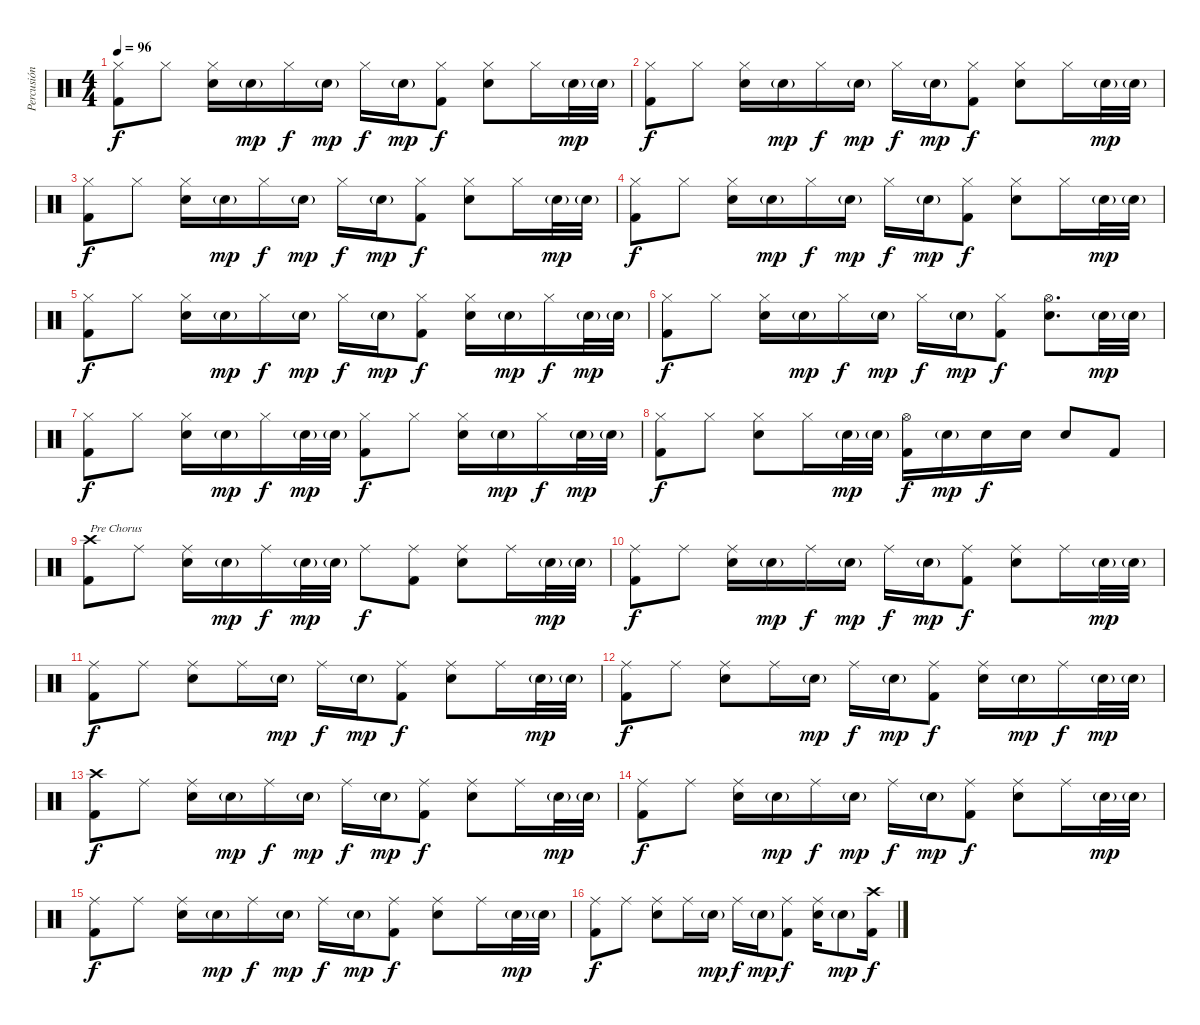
\track ("Percusión" "Percusión") {instrument percussion}
\staff {score}
\articulation defaults
\ts (4 4)
\tempo 96
\clef neutral
\ks c
("Hi-Hat (closed)" "Kick (hit) 2").8{dy f} "Hi-Hat (closed)".8 ("Hi-Hat (closed)" "Snare (hit) 2").16 "Snare (hit) 2"{g}.16{dy mp} "Hi-Hat (closed)".16{dy f} "Snare (hit) 2"{g}.16{dy mp} "Hi-Hat (closed)".16{dy f} "Snare (hit) 2"{g}.16{dy mp} ("Hi-Hat (closed)" "Kick (hit) 2").8{dy f} ("Hi-Hat (closed)" "Snare (hit) 2").8 "Hi-Hat (closed)".16 "Snare (hit) 2"{g}.32{dy mp} "Snare (hit) 2"{g}.32 |
("Hi-Hat (closed)" "Kick (hit) 2").8{dy f} "Hi-Hat (closed)".8 ("Hi-Hat (closed)" "Snare (hit) 2").16 "Snare (hit) 2"{g}.16{dy mp} "Hi-Hat (closed)".16{dy f} "Snare (hit) 2"{g}.16{dy mp} "Hi-Hat (closed)".16{dy f} "Snare (hit) 2"{g}.16{dy mp} ("Hi-Hat (closed)" "Kick (hit) 2").8{dy f} ("Hi-Hat (closed)" "Snare (hit) 2").8 "Hi-Hat (closed)".16 "Snare (hit) 2"{g}.32{dy mp} "Snare (hit) 2"{g}.32 |
("Hi-Hat (closed)" "Kick (hit) 2").8{dy f} "Hi-Hat (closed)".8 ("Hi-Hat (closed)" "Snare (hit) 2").16 "Snare (hit) 2"{g}.16{dy mp} "Hi-Hat (closed)".16{dy f} "Snare (hit) 2"{g}.16{dy mp} "Hi-Hat (closed)".16{dy f} "Snare (hit) 2"{g}.16{dy mp} ("Hi-Hat (closed)" "Kick (hit) 2").8{dy f} ("Hi-Hat (closed)" "Snare (hit) 2").8 "Hi-Hat (closed)".16 "Snare (hit) 2"{g}.32{dy mp} "Snare (hit) 2"{g}.32 |
("Hi-Hat (closed)" "Kick (hit) 2").8{dy f} "Hi-Hat (closed)".8 ("Hi-Hat (closed)" "Snare (hit) 2").16 "Snare (hit) 2"{g}.16{dy mp} "Hi-Hat (closed)".16{dy f} "Snare (hit) 2"{g}.16{dy mp} "Hi-Hat (closed)".16{dy f} "Snare (hit) 2"{g}.16{dy mp} ("Hi-Hat (closed)" "Kick (hit) 2").8{dy f} ("Hi-Hat (closed)" "Snare (hit) 2").8 "Hi-Hat (closed)".16 "Snare (hit) 2"{g}.32{dy mp} "Snare (hit) 2"{g}.32 |
("Hi-Hat (closed)" "Kick (hit) 2").8{dy f} "Hi-Hat (closed)".8 ("Hi-Hat (closed)" "Snare (hit) 2").16 "Snare (hit) 2"{g}.16{dy mp} "Hi-Hat (closed)".16{dy f} "Snare (hit) 2"{g}.16{dy mp} "Hi-Hat (closed)".16{dy f} "Snare (hit) 2"{g}.16{dy mp} ("Hi-Hat (closed)" "Kick (hit) 2").8{dy f} ("Hi-Hat (closed)" "Snare (hit) 2").16 "Snare (hit) 2"{g}.16{dy mp} "Hi-Hat (closed)".16{dy f} "Snare (hit) 2"{g}.32{dy mp} "Snare (hit) 2"{g}.32 |
("Hi-Hat (closed)" "Kick (hit) 2").8{dy f} "Hi-Hat (closed)".8 ("Hi-Hat (closed)" "Snare (hit) 2").16 "Snare (hit) 2"{g}.16{dy mp} "Hi-Hat (closed)".16{dy f} "Snare (hit) 2"{g}.16{dy mp} "Hi-Hat (closed)".16{dy f} "Snare (hit) 2"{g}.16{dy mp} ("Hi-Hat (closed)" "Kick (hit) 2").8{dy f} ("Hi-Hat (open)" "Snare (hit) 2").8{d} "Snare (hit) 2"{g}.32{dy mp} "Snare (hit) 2"{g}.32 |
("Hi-Hat (closed)" "Kick (hit) 2").8{dy f} "Hi-Hat (closed)".8 ("Hi-Hat (closed)" "Snare (hit) 2").16 "Snare (hit) 2"{g}.16{dy mp} "Hi-Hat (closed)".16{dy f} "Snare (hit) 2"{g}.32{dy mp} "Snare (hit) 2"{g}.32 ("Hi-Hat (closed)" "Kick (hit) 2").8{dy f} "Hi-Hat (closed)".8 ("Hi-Hat (closed)" "Snare (hit) 2").16 "Snare (hit) 2"{g}.16{dy mp} "Hi-Hat (closed)".16{dy f} "Snare (hit) 2"{g}.32{dy mp} "Snare (hit) 2"{g}.32 |
("Hi-Hat (closed)" "Kick (hit) 2").8{dy f} "Hi-Hat (closed)".8 ("Hi-Hat (closed)" "Snare (hit) 2").8 "Hi-Hat (closed)".16 "Snare (hit) 2"{g}.32{dy mp} "Snare (hit) 2"{g}.32 ("Hi-Hat (open)" "Kick (hit) 2").16{dy f} "Snare (hit) 2"{g}.16{dy mp} "Snare (hit) 2".16{dy f} "Snare (hit) 2".16 "Snare (hit) 2".8 "Kick (hit) 2".8 |
("Crash high (hit)" "Kick (hit) 2").8{txt "Pre Chorus"} "Ride (middle)".8 ("Ride (middle)" "Snare (hit) 2").16 "Snare (hit) 2"{g}.16{dy mp} "Ride (middle)".16{dy f} "Snare (hit) 2"{g}.32{dy mp} "Snare (hit) 2"{g}.32 "Ride (middle)".8{dy f} ("Ride (middle)" "Kick (hit) 2").8 ("Ride (middle)" "Snare (hit) 2").8 "Ride (middle)".16 "Snare (hit) 2"{g}.32{dy mp} "Snare (hit) 2"{g}.32 |
("Ride (middle)" "Kick (hit) 2").8{dy f} "Ride (middle)".8 ("Ride (middle)" "Snare (hit) 2").16 "Snare (hit) 2"{g}.16{dy mp} "Ride (middle)".16{dy f} "Snare (hit) 2"{g}.16{dy mp} "Ride (middle)".16{dy f} "Snare (hit) 2"{g}.16{dy mp} ("Ride (middle)" "Kick (hit) 2").8{dy f} ("Ride (middle)" "Snare (hit) 2").8 "Ride (middle)".16 "Snare (hit) 2"{g}.32{dy mp} "Snare (hit) 2"{g}.32 |
("Ride (middle)" "Kick (hit) 2").8{dy f} "Ride (middle)".8 ("Ride (middle)" "Snare (hit) 2").8 "Ride (middle)".16 "Snare (hit) 2"{g}.16{dy mp} "Ride (middle)".16{dy f} "Snare (hit) 2"{g}.16{dy mp} ("Ride (middle)" "Kick (hit) 2").8{dy f} ("Ride (middle)" "Snare (hit) 2").8 "Ride (middle)".16 "Snare (hit) 2"{g}.32{dy mp} "Snare (hit) 2"{g}.32 |
("Ride (middle)" "Kick (hit) 2").8{dy f} "Ride (middle)".8 ("Ride (middle)" "Snare (hit) 2").8 "Ride (middle)".16 "Snare (hit) 2"{g}.16{dy mp} "Ride (middle)".16{dy f} "Snare (hit) 2"{g}.16{dy mp} ("Ride (middle)" "Kick (hit) 2").8{dy f} ("Ride (middle)" "Snare (hit) 2").16 "Snare (hit) 2"{g}.16{dy mp} "Ride (middle)".16{dy f} "Snare (hit) 2"{g}.32{dy mp} "Snare (hit) 2"{g}.32 |
("Crash high (hit)" "Kick (hit) 2").8{dy f} "Ride (middle)".8 ("Ride (middle)" "Snare (hit) 2").16 "Snare (hit) 2"{g}.16{dy mp} "Ride (middle)".16{dy f} "Snare (hit) 2"{g}.16{dy mp} "Ride (middle)".16{dy f} "Snare (hit) 2"{g}.16{dy mp} ("Ride (middle)" "Kick (hit) 2").8{dy f} ("Ride (middle)" "Snare (hit) 2").8 "Ride (middle)".16 "Snare (hit) 2"{g}.32{dy mp} "Snare (hit) 2"{g}.32 |
("Ride (middle)" "Kick (hit) 2").8{dy f} "Ride (middle)".8 ("Ride (middle)" "Snare (hit) 2").16 "Snare (hit) 2"{g}.16{dy mp} "Ride (middle)".16{dy f} "Snare (hit) 2"{g}.16{dy mp} "Ride (middle)".16{dy f} "Snare (hit) 2"{g}.16{dy mp} ("Ride (middle)" "Kick (hit) 2").8{dy f} ("Ride (middle)" "Snare (hit) 2").8 "Ride (middle)".16 "Snare (hit) 2"{g}.32{dy mp} "Snare (hit) 2"{g}.32 |
("Ride (middle)" "Kick (hit) 2").8{dy f} "Ride (middle)".8 ("Ride (middle)" "Snare (hit) 2").16 "Snare (hit) 2"{g}.16{dy mp} "Ride (middle)".16{dy f} "Snare (hit) 2"{g}.16{dy mp} "Ride (middle)".16{dy f} "Snare (hit) 2"{g}.16{dy mp} ("Ride (middle)" "Kick (hit) 2").8{dy f} ("Ride (middle)" "Snare (hit) 2").8 "Ride (middle)".16 "Snare (hit) 2"{g}.32{dy mp} "Snare (hit) 2"{g}.32 |
("Ride (middle)" "Kick (hit) 2").8{dy f} "Ride (middle)".8 ("Ride (middle)" "Snare (hit) 2").8 "Ride (middle)".16 "Snare (hit) 2"{g}.16{dy mp} "Ride (middle)".16{dy f} "Snare (hit) 2"{g}.16{dy mp} ("Ride (middle)" "Kick (hit) 2").8{dy f} ("Ride (middle)" "Snare (hit) 2").16 "Snare (hit) 2"{g}.8{dy mp} ("Crash high (hit)" "Kick (hit) 2").16{dy f}
